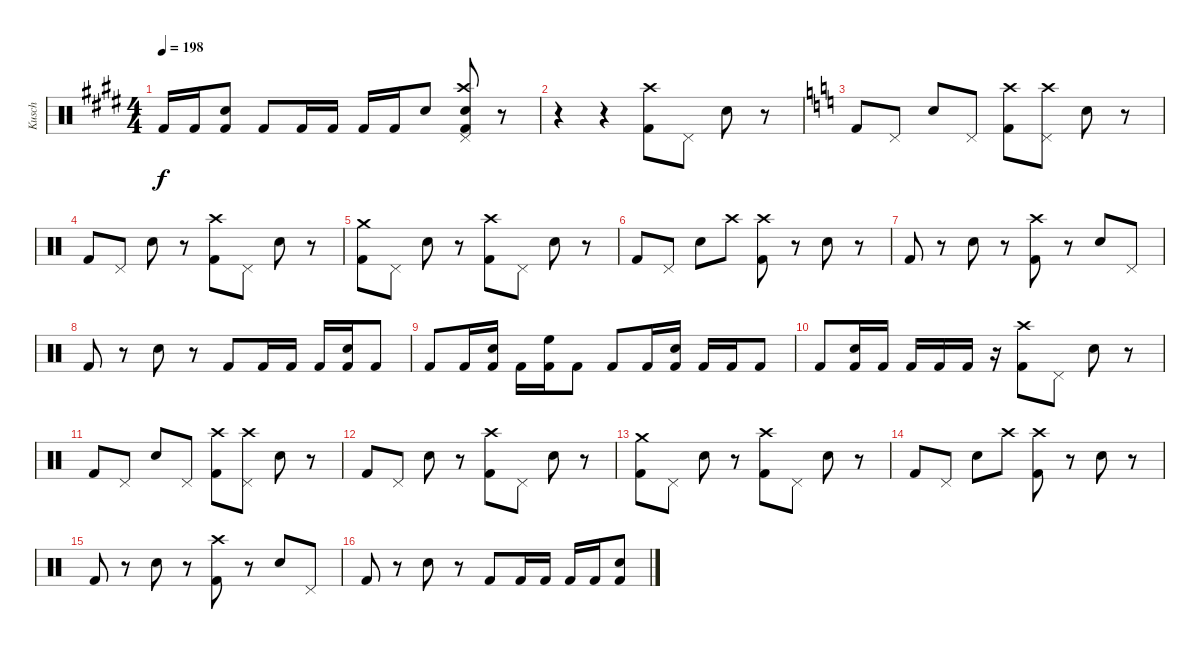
\track ("Kusch" "Kusch") {instrument percussion}
\staff {score}
\articulation defaults
\ts (4 4)
\tempo 198
\clef neutral
\ks e "Kick (hit) 2".16{dy f} "Kick (hit) 2".16
("Snare (hit) 2" "Kick (hit) 2").8 "Kick (hit) 2".8 "Kick (hit) 2".16 "Kick (hit) 2".16 "Kick (hit) 2".16 "Kick (hit) 2".16 "Snare (hit) 2".8 ("Crash high (hit)" "Snare (hit) 2" "Pedal Hi-Hat (hit)" "Kick (hit) 2").8 r.8 |
r.4 r.4 ("Crash high (hit)" "Kick (hit) 2").8 "Pedal Hi-Hat (hit)".8 "Snare (hit) 2".8 r.8 |
\ks c "Kick (hit) 2".8 "Pedal Hi-Hat (hit)".8 "Snare (hit) 2".8 "Pedal Hi-Hat (hit)".8
("Crash high (hit)" "Kick (hit) 2").8 ("Crash high (hit)" "Pedal Hi-Hat (hit)").8 "Snare (hit) 2".8 r.8 |
"Kick (hit) 2".8 "Pedal Hi-Hat (hit)".8 "Snare (hit) 2".8 r.8 ("Crash high (hit)" "Kick (hit) 2").8 "Pedal Hi-Hat (hit)".8 "Snare (hit) 2".8 r.8 |
("Crash medium (hit)" "Kick (hit) 2").8 "Pedal Hi-Hat (hit)".8 "Snare (hit) 2".8 r.8 ("Crash high (hit)" "Kick (hit) 2").8 "Pedal Hi-Hat (hit)".8 "Snare (hit) 2".8 r.8 |
"Kick (hit) 2".8 "Pedal Hi-Hat (hit)".8 "Snare (hit) 2".8 "Crash high (hit)".8 ("Crash high (hit)" "Kick (hit) 2").8 r.8 "Snare (hit) 2".8 r.8 |
"Kick (hit) 2".8 r.8 "Snare (hit) 2".8 r.8 ("Crash high (hit)" "Kick (hit) 2").8 r.8 "Snare (hit) 2".8 "Pedal Hi-Hat (hit)".8 |
"Kick (hit) 2".8 r.8 "Snare (hit) 2".8 r.8 "Kick (hit) 2".8 "Kick (hit) 2".16 "Kick (hit) 2".16 "Kick (hit) 2".16 ("Snare (hit) 2" "Kick (hit) 2").16 "Kick (hit) 2".8 |
"Kick (hit) 2".8 "Kick (hit) 2".16 ("Snare (hit) 2" "Kick (hit) 2").16 "Kick (hit) 2".16 ("High Floor Tom (hit)" "Kick (hit) 2").16 "Kick (hit) 2".8 "Kick (hit) 2".8 "Kick (hit) 2".16 ("Snare (hit) 2" "Kick (hit) 2").16 "Kick (hit) 2".16 "Kick (hit) 2".16 "Kick (hit) 2".8 |
"Kick (hit) 2".8 ("Snare (hit) 2" "Kick (hit) 2").16 "Kick (hit) 2".16 "Kick (hit) 2".16 "Kick (hit) 2".16 "Kick (hit) 2".16 r.16 ("Crash high (hit)" "Kick (hit) 2").8 "Pedal Hi-Hat (hit)".8 "Snare (hit) 2".8 r.8 |
"Kick (hit) 2".8 "Pedal Hi-Hat (hit)".8 "Snare (hit) 2".8 "Pedal Hi-Hat (hit)".8 ("Crash high (hit)" "Kick (hit) 2").8 ("Crash high (hit)" "Pedal Hi-Hat (hit)").8 "Snare (hit) 2".8 r.8 |
"Kick (hit) 2".8 "Pedal Hi-Hat (hit)".8 "Snare (hit) 2".8 r.8 ("Crash high (hit)" "Kick (hit) 2").8 "Pedal Hi-Hat (hit)".8 "Snare (hit) 2".8 r.8 |
("Crash medium (hit)" "Kick (hit) 2").8 "Pedal Hi-Hat (hit)".8 "Snare (hit) 2".8 r.8 ("Crash high (hit)" "Kick (hit) 2").8 "Pedal Hi-Hat (hit)".8 "Snare (hit) 2".8 r.8 |
"Kick (hit) 2".8 "Pedal Hi-Hat (hit)".8 "Snare (hit) 2".8 "Crash high (hit)".8 ("Crash high (hit)" "Kick (hit) 2").8 r.8 "Snare (hit) 2".8 r.8 |
"Kick (hit) 2".8 r.8 "Snare (hit) 2".8 r.8 ("Crash high (hit)" "Kick (hit) 2").8 r.8 "Snare (hit) 2".8 "Pedal Hi-Hat (hit)".8 |
"Kick (hit) 2".8 r.8 "Snare (hit) 2".8 r.8 "Kick (hit) 2".8 "Kick (hit) 2".16 "Kick (hit) 2".16 "Kick (hit) 2".16 "Kick (hit) 2".16 ("Snare (hit) 2" "Kick (hit) 2").8
